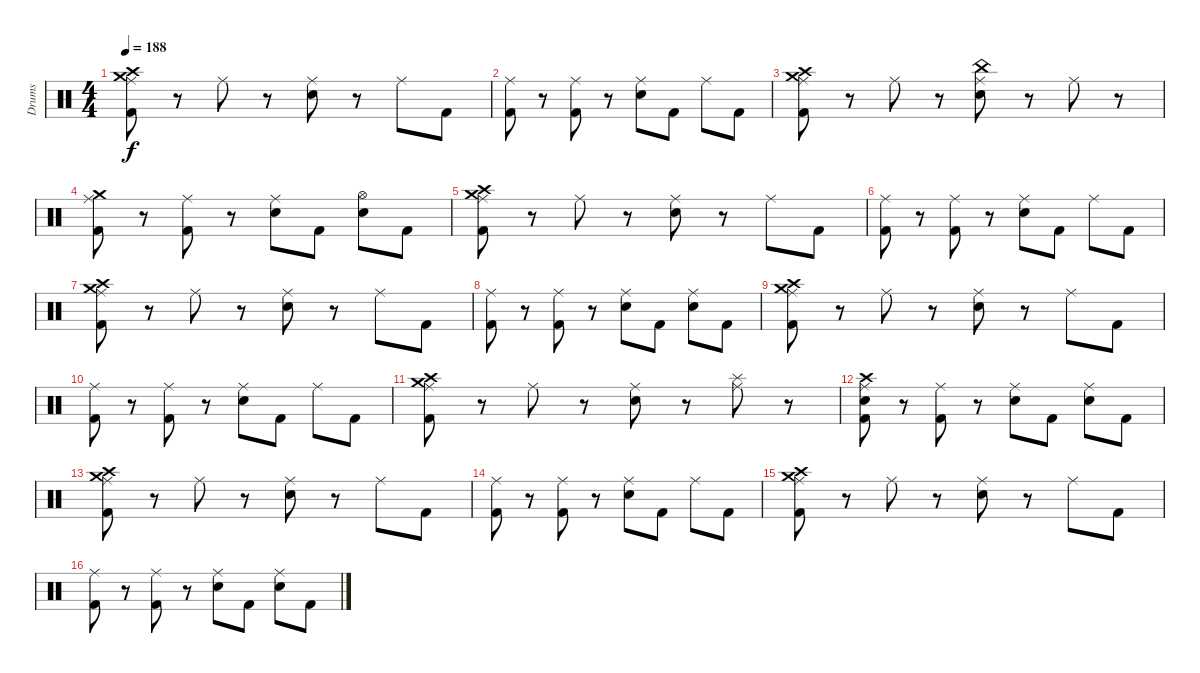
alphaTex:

\track ("Drums" "Drums") {instrument percussion}
\staff {score}
\articulation defaults
\ts (4 4)
\tempo 188
\clef neutral
\ks c
("Crash medium (hit)" "Crash high (hit)" "Ride (middle)" "Kick (hit) 2").8{dy f} r.8 "Ride (middle)".8 r.8 ("Ride (middle)" "Snare (hit) 2").8 r.8 "Ride (middle)".8 "Kick (hit) 2".8 |
("Ride (middle)" "Kick (hit) 2").8 r.8 ("Ride (middle)" "Kick (hit) 2").8 r.8 ("Ride (middle)" "Snare (hit) 2").8 "Kick (hit) 2".8 "Ride (middle)".8 "Kick (hit) 2".8 |
("Crash medium (hit)" "Crash high (hit)" "Ride (middle)" "Kick (hit) 2").8 r.8 "Ride (middle)".8 r.8 ("China (hit)" "Ride (middle)" "Snare (hit) 2").8 r.8 "Ride (middle)".8 r.8 |
("Crash medium (hit)" "Ride (middle)" "Kick (hit) 2").8 r.8 ("Ride (middle)" "Kick (hit) 2").8 r.8 ("Ride (middle)" "Snare (hit) 2").8 "Kick (hit) 2".8 ("Hi-Hat (open)" "Snare (hit) 2").8 "Kick (hit) 2".8 |
("Crash medium (hit)" "Crash high (hit)" "Ride (middle)" "Kick (hit) 2").8 r.8 "Ride (middle)".8 r.8 ("Ride (middle)" "Snare (hit) 2").8 r.8 "Ride (middle)".8 "Kick (hit) 2".8 |
("Ride (middle)" "Kick (hit) 2").8 r.8 ("Ride (middle)" "Kick (hit) 2").8 r.8 ("Ride (middle)" "Snare (hit) 2").8 "Kick (hit) 2".8 "Ride (middle)".8 "Kick (hit) 2".8 |
("Crash medium (hit)" "Crash high (hit)" "Ride (middle)" "Kick (hit) 2").8 r.8 "Ride (middle)".8 r.8 ("Ride (middle)" "Snare (hit) 2").8 r.8 "Ride (middle)".8 "Kick (hit) 2".8 |
("Ride (middle)" "Kick (hit) 2").8 r.8 ("Ride (middle)" "Kick (hit) 2").8 r.8 ("Ride (middle)" "Snare (hit) 2").8 "Kick (hit) 2".8 ("Ride (middle)" "Snare (hit) 2").8 "Kick (hit) 2".8 |
("Crash medium (hit)" "Crash high (hit)" "Ride (middle)" "Kick (hit) 2").8 r.8 "Ride (middle)".8 r.8 ("Ride (middle)" "Snare (hit) 2").8 r.8 "Ride (middle)".8 "Kick (hit) 2".8 |
("Ride (middle)" "Kick (hit) 2").8 r.8 ("Ride (middle)" "Kick (hit) 2").8 r.8 ("Ride (middle)" "Snare (hit) 2").8 "Kick (hit) 2".8 "Ride (middle)".8 "Kick (hit) 2".8 |
("Crash medium (hit)" "Crash high (hit)" "Ride (middle)" "Kick (hit) 2").8 r.8 "Ride (middle)".8 r.8 ("Ride (middle)" "Snare (hit) 2").8 r.8 ("Splash (hit)" "Ride (middle)").8 r.8 |
("Crash high (hit)" "Ride (middle)" "Snare (hit) 2" "Kick (hit) 2").8 r.8 ("Ride (middle)" "Kick (hit) 2").8 r.8 ("Ride (middle)" "Snare (hit) 2").8 "Kick (hit) 2".8 ("Ride (middle)" "Snare (hit) 2").8 "Kick (hit) 2".8 |
("Crash medium (hit)" "Crash high (hit)" "Ride (middle)" "Kick (hit) 2").8 r.8 "Ride (middle)".8 r.8 ("Ride (middle)" "Snare (hit) 2").8 r.8 "Ride (middle)".8 "Kick (hit) 2".8 |
("Ride (middle)" "Kick (hit) 2").8 r.8 ("Ride (middle)" "Kick (hit) 2").8 r.8 ("Ride (middle)" "Snare (hit) 2").8 "Kick (hit) 2".8 "Ride (middle)".8 "Kick (hit) 2".8 |
("Crash medium (hit)" "Crash high (hit)" "Ride (middle)" "Kick (hit) 2").8 r.8 "Ride (middle)".8 r.8 ("Ride (middle)" "Snare (hit) 2").8 r.8 "Ride (middle)".8 "Kick (hit) 2".8 |
("Ride (middle)" "Kick (hit) 2").8 r.8 ("Ride (middle)" "Kick (hit) 2").8 r.8 ("Ride (middle)" "Snare (hit) 2").8 "Kick (hit) 2".8 ("Ride (middle)" "Snare (hit) 2").8 "Kick (hit) 2".8
